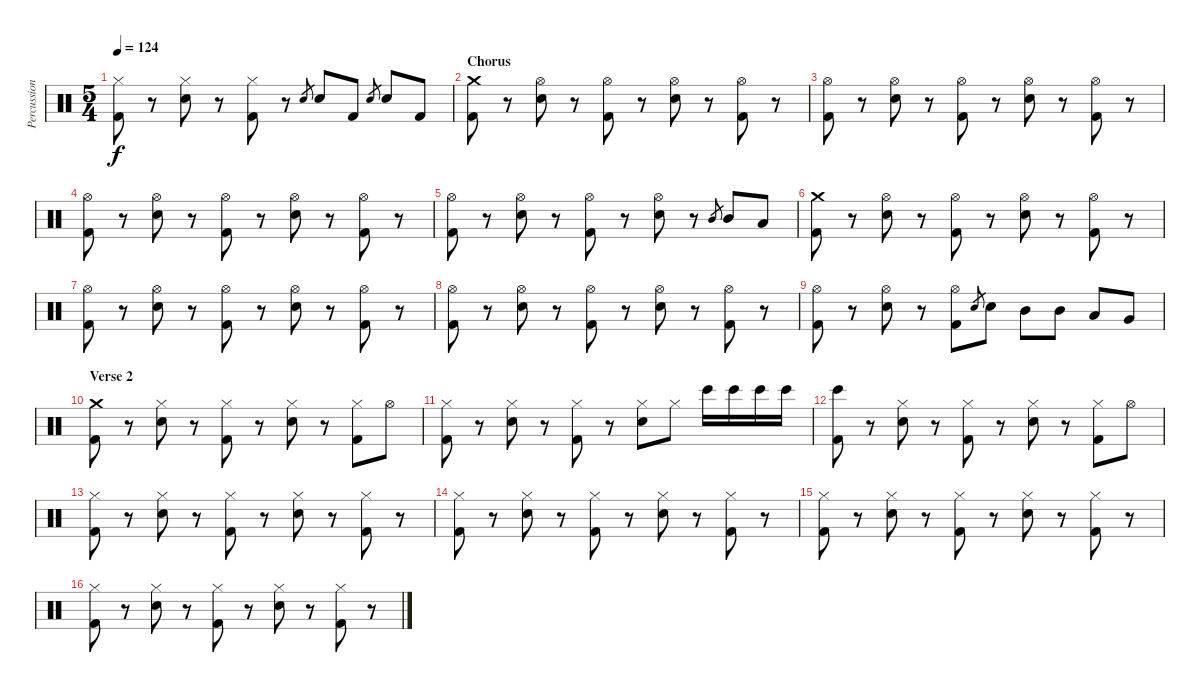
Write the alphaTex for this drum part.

\track ("Percussion" "Percussion") {instrument percussion}
\staff {score}
\articulation defaults
\ts (5 4)
\tempo 124
\clef neutral
\ks c
("Hi-Hat (closed)" "Kick (hit) 2").8{dy f} r.8 ("Hi-Hat (closed)" "Snare (hit) 2").8 r.8 ("Hi-Hat (closed)" "Kick (hit) 2").8 r.8 "Snare (hit) 2".8{gr} "Snare (hit) 2".8 "Kick (hit) 2".8 "Snare (hit) 2".8{gr} "Snare (hit) 2".8 "Kick (hit) 2".8 |
\section ("" "Chorus")
("Crash medium (hit)" "Kick (hit) 2").8 r.8 ("Hi-Hat (open)" "Snare (hit) 2").8 r.8 ("Hi-Hat (open)" "Kick (hit) 2").8 r.8 ("Hi-Hat (open)" "Snare (hit) 2").8 r.8 ("Hi-Hat (open)" "Kick (hit) 2").8 r.8 |
("Hi-Hat (open)" "Kick (hit) 2").8 r.8 ("Hi-Hat (open)" "Snare (hit) 2").8 r.8 ("Hi-Hat (open)" "Kick (hit) 2").8 r.8 ("Hi-Hat (open)" "Snare (hit) 2").8 r.8 ("Hi-Hat (open)" "Kick (hit) 2").8 r.8 |
("Hi-Hat (open)" "Kick (hit) 2").8 r.8 ("Hi-Hat (open)" "Snare (hit) 2").8 r.8 ("Hi-Hat (open)" "Kick (hit) 2").8 r.8 ("Hi-Hat (open)" "Snare (hit) 2").8 r.8 ("Hi-Hat (open)" "Kick (hit) 2").8 r.8 |
("Hi-Hat (open)" "Kick (hit) 2").8 r.8 ("Hi-Hat (open)" "Snare (hit) 2").8 r.8 ("Hi-Hat (open)" "Kick (hit) 2").8 r.8 ("Hi-Hat (open)" "Snare (hit) 2").8 r.8 "Mid Tom (hit)".8{gr} "Mid Tom (hit)".8 "Low Tom (hit)".8 |
("Crash medium (hit)" "Kick (hit) 2").8 r.8 ("Hi-Hat (open)" "Snare (hit) 2").8 r.8 ("Hi-Hat (open)" "Kick (hit) 2").8 r.8 ("Hi-Hat (open)" "Snare (hit) 2").8 r.8 ("Hi-Hat (open)" "Kick (hit) 2").8 r.8 |
("Hi-Hat (open)" "Kick (hit) 2").8 r.8 ("Hi-Hat (open)" "Snare (hit) 2").8 r.8 ("Hi-Hat (open)" "Kick (hit) 2").8 r.8 ("Hi-Hat (open)" "Snare (hit) 2").8 r.8 ("Hi-Hat (open)" "Kick (hit) 2").8 r.8 |
("Hi-Hat (open)" "Kick (hit) 2").8 r.8 ("Hi-Hat (open)" "Snare (hit) 2").8 r.8 ("Hi-Hat (open)" "Kick (hit) 2").8 r.8 ("Hi-Hat (open)" "Snare (hit) 2").8 r.8 ("Hi-Hat (open)" "Kick (hit) 2").8 r.8 |
("Hi-Hat (open)" "Kick (hit) 2").8 r.8 ("Hi-Hat (open)" "Snare (hit) 2").8 r.8 ("Hi-Hat (open)" "Kick (hit) 2").8 "Snare (hit) 2".8{gr} "Snare (hit) 2".8 "Mid Tom (hit)".8 "Mid Tom (hit)".8 "Low Tom (hit)".8 "Very Low Tom (hit)".8 |
\section ("" "Verse 2")
("Crash medium (hit)" "Kick (hit) 2").8 r.8 ("Hi-Hat (closed)" "Snare (hit) 2").8 r.8 ("Hi-Hat (closed)" "Kick (hit) 2").8 r.8 ("Hi-Hat (closed)" "Snare (hit) 2").8 r.8 ("Hi-Hat (closed)" "Kick (hit) 2").8 "Hi-Hat (open)".8 |
("Hi-Hat (closed)" "Kick (hit) 2").8 r.8 ("Hi-Hat (closed)" "Snare (hit) 2").8 r.8 ("Hi-Hat (closed)" "Kick (hit) 2").8 r.8 ("Hi-Hat (closed)" "Snare (hit) 2").8 "Hi-Hat (closed)".8 "Bongo High (hit)".16 "Bongo High (hit)".16 "Bongo High (hit)".16 "Bongo High (hit)".16 |
("Bongo High (hit)" "Kick (hit) 2").8 r.8 ("Hi-Hat (closed)" "Snare (hit) 2").8 r.8 ("Hi-Hat (closed)" "Kick (hit) 2").8 r.8 ("Hi-Hat (closed)" "Snare (hit) 2").8 r.8 ("Hi-Hat (closed)" "Kick (hit) 2").8 "Hi-Hat (open)".8 |
("Hi-Hat (closed)" "Kick (hit) 2").8 r.8 ("Hi-Hat (closed)" "Snare (hit) 2").8 r.8 ("Hi-Hat (closed)" "Kick (hit) 2").8 r.8 ("Hi-Hat (closed)" "Snare (hit) 2").8 r.8 ("Hi-Hat (closed)" "Kick (hit) 2").8 r.8 |
("Hi-Hat (closed)" "Kick (hit) 2").8 r.8 ("Hi-Hat (closed)" "Snare (hit) 2").8 r.8 ("Hi-Hat (closed)" "Kick (hit) 2").8 r.8 ("Hi-Hat (closed)" "Snare (hit) 2").8 r.8 ("Hi-Hat (closed)" "Kick (hit) 2").8 r.8 |
("Hi-Hat (closed)" "Kick (hit) 2").8 r.8 ("Hi-Hat (closed)" "Snare (hit) 2").8 r.8 ("Hi-Hat (closed)" "Kick (hit) 2").8 r.8 ("Hi-Hat (closed)" "Snare (hit) 2").8 r.8 ("Hi-Hat (closed)" "Kick (hit) 2").8 r.8 |
("Hi-Hat (closed)" "Kick (hit) 2").8 r.8 ("Hi-Hat (closed)" "Snare (hit) 2").8 r.8 ("Hi-Hat (closed)" "Kick (hit) 2").8 r.8 ("Hi-Hat (closed)" "Snare (hit) 2").8 r.8 ("Hi-Hat (closed)" "Kick (hit) 2").8 r.8
